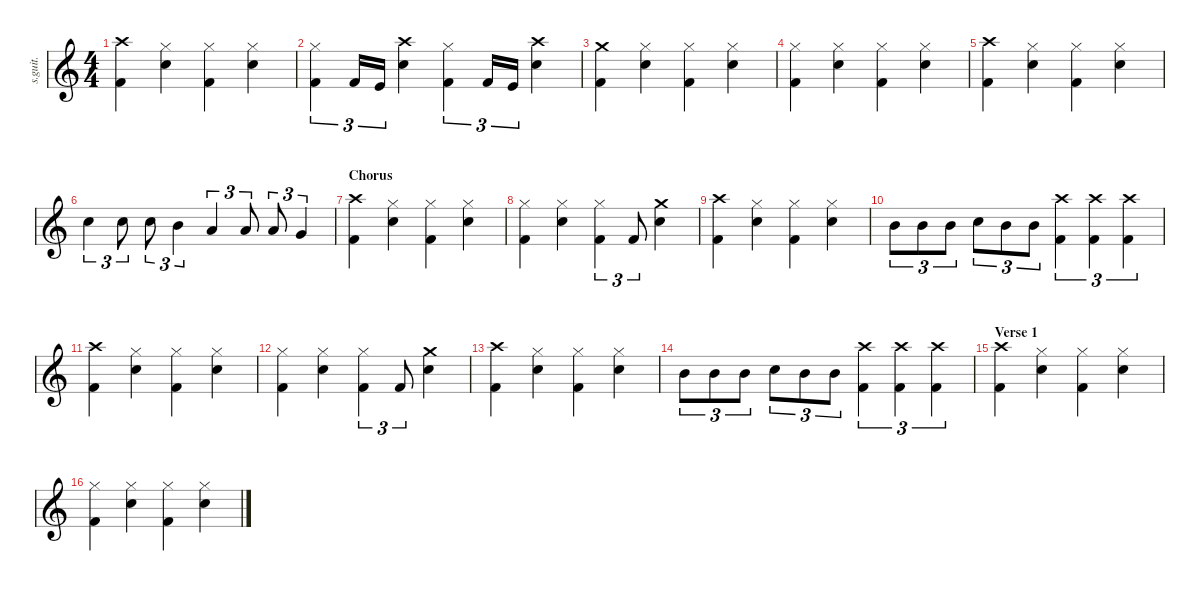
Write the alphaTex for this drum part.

\defaultSystemsLayout 4
\hideDynamics
\bracketExtendMode nobrackets
\track ("Lars Ulrich (Drums)" "s.guit.") {instrument percussion}
\staff {score}
\articulation defaults
\ts (4 4)
\tempo (118 hide)
\clef g2
\ks c
("Crash high (hit)" "Kick (hit) 2").4{lyrics (0 "") lyrics (1 "") lyrics (2 "") lyrics (3 "") lyrics (4 "") dy f} ("Hi-Hat (closed)" "Snare (hit) 2").4{lyrics (0 "") lyrics (1 "") lyrics (2 "") lyrics (3 "") lyrics (4 "")} ("Hi-Hat (closed)" "Kick (hit) 2").4{lyrics (0 "") lyrics (1 "") lyrics (2 "") lyrics (3 "") lyrics (4 "")} ("Hi-Hat (closed)" "Snare (hit) 2").4{lyrics (0 "") lyrics (1 "") lyrics (2 "") lyrics (3 "") lyrics (4 "")} |
("Hi-Hat (closed)" "Kick (hit) 2").4{tu (3 2) lyrics (0 "") lyrics (1 "") lyrics (2 "") lyrics (3 "") lyrics (4 "")} "Kick (hit) 2".16{tu (3 2) lyrics (0 "") lyrics (1 "") lyrics (2 "") lyrics (3 "") lyrics (4 "")} "Kick (hit)".16{tu (3 2) lyrics (0 "") lyrics (1 "") lyrics (2 "") lyrics (3 "") lyrics (4 "")} ("Crash high (hit)" "Snare (hit) 2").4{lyrics (0 "") lyrics (1 "") lyrics (2 "") lyrics (3 "") lyrics (4 "")} ("Hi-Hat (closed)" "Kick (hit) 2").4{tu (3 2) lyrics (0 "") lyrics (1 "") lyrics (2 "") lyrics (3 "") lyrics (4 "")} "Kick (hit) 2".16{tu (3 2) lyrics (0 "") lyrics (1 "") lyrics (2 "") lyrics (3 "") lyrics (4 "")} "Kick (hit)".16{tu (3 2) lyrics (0 "") lyrics (1 "") lyrics (2 "") lyrics (3 "") lyrics (4 "")} ("Crash high (hit)" "Snare (hit) 2").4{lyrics (0 "") lyrics (1 "") lyrics (2 "") lyrics (3 "") lyrics (4 "")} |
("Crash medium (hit)" "Kick (hit) 2").4{lyrics (0 "") lyrics (1 "") lyrics (2 "") lyrics (3 "") lyrics (4 "")} ("Hi-Hat (closed)" "Snare (hit) 2").4{lyrics (0 "") lyrics (1 "") lyrics (2 "") lyrics (3 "") lyrics (4 "")} ("Hi-Hat (closed)" "Kick (hit) 2").4{lyrics (0 "") lyrics (1 "") lyrics (2 "") lyrics (3 "") lyrics (4 "")} ("Hi-Hat (closed)" "Snare (hit) 2").4{lyrics (0 "") lyrics (1 "") lyrics (2 "") lyrics (3 "") lyrics (4 "")} |
("Hi-Hat (closed)" "Kick (hit) 2").4{lyrics (0 "") lyrics (1 "") lyrics (2 "") lyrics (3 "") lyrics (4 "")} ("Hi-Hat (closed)" "Snare (hit) 2").4{lyrics (0 "") lyrics (1 "") lyrics (2 "") lyrics (3 "") lyrics (4 "")} ("Hi-Hat (closed)" "Kick (hit) 2").4{lyrics (0 "") lyrics (1 "") lyrics (2 "") lyrics (3 "") lyrics (4 "")} ("Hi-Hat (closed)" "Snare (hit) 2").4{lyrics (0 "") lyrics (1 "") lyrics (2 "") lyrics (3 "") lyrics (4 "")} |
("Crash high (hit)" "Kick (hit) 2").4{lyrics (0 "") lyrics (1 "") lyrics (2 "") lyrics (3 "") lyrics (4 "")} ("Hi-Hat (closed)" "Snare (hit) 2").4{lyrics (0 "") lyrics (1 "") lyrics (2 "") lyrics (3 "") lyrics (4 "")} ("Hi-Hat (closed)" "Kick (hit) 2").4{lyrics (0 "") lyrics (1 "") lyrics (2 "") lyrics (3 "") lyrics (4 "")} ("Hi-Hat (closed)" "Snare (hit) 2").4{lyrics (0 "") lyrics (1 "") lyrics (2 "") lyrics (3 "") lyrics (4 "")} |
"Snare (hit) 2".4{tu (3 2) lyrics (0 "") lyrics (1 "") lyrics (2 "") lyrics (3 "") lyrics (4 "")} "Snare (hit) 2".8{tu (3 2) lyrics (0 "") lyrics (1 "") lyrics (2 "") lyrics (3 "") lyrics (4 "")} "Snare (hit) 2".8{tu (3 2) lyrics (0 "") lyrics (1 "") lyrics (2 "") lyrics (3 "") lyrics (4 "")} "Mid Tom (hit)".4{tu (3 2) lyrics (0 "") lyrics (1 "") lyrics (2 "") lyrics (3 "") lyrics (4 "")} "Low Tom (hit)".4{tu (3 2) lyrics (0 "") lyrics (1 "") lyrics (2 "") lyrics (3 "") lyrics (4 "")} "Low Tom (hit)".8{tu (3 2) lyrics (0 "") lyrics (1 "") lyrics (2 "") lyrics (3 "") lyrics (4 "")} "Low Tom (hit)".8{tu (3 2) lyrics (0 "") lyrics (1 "") lyrics (2 "") lyrics (3 "") lyrics (4 "")} "Very Low Tom (hit)".4{tu (3 2) lyrics (0 "") lyrics (1 "") lyrics (2 "") lyrics (3 "") lyrics (4 "")} |
\section ("" "Chorus")
("Crash high (hit)" "Kick (hit) 2").4{lyrics (0 "") lyrics (1 "") lyrics (2 "") lyrics (3 "") lyrics (4 "")} ("Hi-Hat (closed)" "Snare (hit) 2").4{lyrics (0 "") lyrics (1 "") lyrics (2 "") lyrics (3 "") lyrics (4 "")} ("Hi-Hat (closed)" "Kick (hit) 2").4{lyrics (0 "") lyrics (1 "") lyrics (2 "") lyrics (3 "") lyrics (4 "")} ("Hi-Hat (closed)" "Snare (hit) 2").4{lyrics (0 "") lyrics (1 "") lyrics (2 "") lyrics (3 "") lyrics (4 "")} |
("Hi-Hat (closed)" "Kick (hit) 2").4{lyrics (0 "") lyrics (1 "") lyrics (2 "") lyrics (3 "") lyrics (4 "")} ("Hi-Hat (closed)" "Snare (hit) 2").4{lyrics (0 "") lyrics (1 "") lyrics (2 "") lyrics (3 "") lyrics (4 "")} ("Hi-Hat (closed)" "Kick (hit) 2").4{tu (3 2) lyrics (0 "") lyrics (1 "") lyrics (2 "") lyrics (3 "") lyrics (4 "")} "Kick (hit) 2".8{tu (3 2) lyrics (0 "") lyrics (1 "") lyrics (2 "") lyrics (3 "") lyrics (4 "")} ("Crash medium (hit)" "Snare (hit) 2").4{lyrics (0 "") lyrics (1 "") lyrics (2 "") lyrics (3 "") lyrics (4 "")} |
("Crash high (hit)" "Kick (hit) 2").4{lyrics (0 "") lyrics (1 "") lyrics (2 "") lyrics (3 "") lyrics (4 "")} ("Hi-Hat (closed)" "Snare (hit) 2").4{lyrics (0 "") lyrics (1 "") lyrics (2 "") lyrics (3 "") lyrics (4 "")} ("Hi-Hat (closed)" "Kick (hit) 2").4{lyrics (0 "") lyrics (1 "") lyrics (2 "") lyrics (3 "") lyrics (4 "")} ("Hi-Hat (closed)" "Snare (hit) 2").4{lyrics (0 "") lyrics (1 "") lyrics (2 "") lyrics (3 "") lyrics (4 "")} |
"Mid Tom (hit)".8{tu (3 2) lyrics (0 "") lyrics (1 "") lyrics (2 "") lyrics (3 "") lyrics (4 "")} "Mid Tom (hit)".8{tu (3 2) lyrics (0 "") lyrics (1 "") lyrics (2 "") lyrics (3 "") lyrics (4 "")} "Mid Tom (hit)".8{tu (3 2) lyrics (0 "") lyrics (1 "") lyrics (2 "") lyrics (3 "") lyrics (4 "")} "Snare (hit) 2".8{tu (3 2) lyrics (0 "") lyrics (1 "") lyrics (2 "") lyrics (3 "") lyrics (4 "")} "Mid Tom (hit)".8{tu (3 2) lyrics (0 "") lyrics (1 "") lyrics (2 "") lyrics (3 "") lyrics (4 "")} "Mid Tom (hit)".8{tu (3 2) lyrics (0 "") lyrics (1 "") lyrics (2 "") lyrics (3 "") lyrics (4 "")} ("Crash high (hit)" "Kick (hit) 2").4{tu (3 2) lyrics (0 "") lyrics (1 "") lyrics (2 "") lyrics (3 "") lyrics (4 "")} ("Crash high (hit)" "Kick (hit) 2").4{tu (3 2) lyrics (0 "") lyrics (1 "") lyrics (2 "") lyrics (3 "") lyrics (4 "")} ("Crash high (hit)" "Kick (hit) 2").4{tu (3 2) lyrics (0 "") lyrics (1 "") lyrics (2 "") lyrics (3 "") lyrics (4 "")} |
("Crash high (hit)" "Kick (hit) 2").4{lyrics (0 "") lyrics (1 "") lyrics (2 "") lyrics (3 "") lyrics (4 "")} ("Hi-Hat (closed)" "Snare (hit) 2").4{lyrics (0 "") lyrics (1 "") lyrics (2 "") lyrics (3 "") lyrics (4 "")} ("Hi-Hat (closed)" "Kick (hit) 2").4{lyrics (0 "") lyrics (1 "") lyrics (2 "") lyrics (3 "") lyrics (4 "")} ("Hi-Hat (closed)" "Snare (hit) 2").4{lyrics (0 "") lyrics (1 "") lyrics (2 "") lyrics (3 "") lyrics (4 "")} |
("Hi-Hat (closed)" "Kick (hit) 2").4{lyrics (0 "") lyrics (1 "") lyrics (2 "") lyrics (3 "") lyrics (4 "")} ("Hi-Hat (closed)" "Snare (hit) 2").4{lyrics (0 "") lyrics (1 "") lyrics (2 "") lyrics (3 "") lyrics (4 "")} ("Hi-Hat (closed)" "Kick (hit) 2").4{tu (3 2) lyrics (0 "") lyrics (1 "") lyrics (2 "") lyrics (3 "") lyrics (4 "")} "Kick (hit) 2".8{tu (3 2) lyrics (0 "") lyrics (1 "") lyrics (2 "") lyrics (3 "") lyrics (4 "")} ("Crash medium (hit)" "Snare (hit) 2").4{lyrics (0 "") lyrics (1 "") lyrics (2 "") lyrics (3 "") lyrics (4 "")} |
("Crash high (hit)" "Kick (hit) 2").4{lyrics (0 "") lyrics (1 "") lyrics (2 "") lyrics (3 "") lyrics (4 "")} ("Hi-Hat (closed)" "Snare (hit) 2").4{lyrics (0 "") lyrics (1 "") lyrics (2 "") lyrics (3 "") lyrics (4 "")} ("Hi-Hat (closed)" "Kick (hit) 2").4{lyrics (0 "") lyrics (1 "") lyrics (2 "") lyrics (3 "") lyrics (4 "")} ("Hi-Hat (closed)" "Snare (hit) 2").4{lyrics (0 "") lyrics (1 "") lyrics (2 "") lyrics (3 "") lyrics (4 "")} |
"Mid Tom (hit)".8{tu (3 2) lyrics (0 "") lyrics (1 "") lyrics (2 "") lyrics (3 "") lyrics (4 "")} "Mid Tom (hit)".8{tu (3 2) lyrics (0 "") lyrics (1 "") lyrics (2 "") lyrics (3 "") lyrics (4 "")} "Mid Tom (hit)".8{tu (3 2) lyrics (0 "") lyrics (1 "") lyrics (2 "") lyrics (3 "") lyrics (4 "")} "Snare (hit) 2".8{tu (3 2) lyrics (0 "") lyrics (1 "") lyrics (2 "") lyrics (3 "") lyrics (4 "")} "Mid Tom (hit)".8{tu (3 2) lyrics (0 "") lyrics (1 "") lyrics (2 "") lyrics (3 "") lyrics (4 "")} "Mid Tom (hit)".8{tu (3 2) lyrics (0 "") lyrics (1 "") lyrics (2 "") lyrics (3 "") lyrics (4 "")} ("Crash high (hit)" "Kick (hit) 2").4{tu (3 2) lyrics (0 "") lyrics (1 "") lyrics (2 "") lyrics (3 "") lyrics (4 "")} ("Crash high (hit)" "Kick (hit) 2").4{tu (3 2) lyrics (0 "") lyrics (1 "") lyrics (2 "") lyrics (3 "") lyrics (4 "")} ("Crash high (hit)" "Kick (hit) 2").4{tu (3 2) lyrics (0 "") lyrics (1 "") lyrics (2 "") lyrics (3 "") lyrics (4 "")} |
\section ("" "Verse 1")
("Crash high (hit)" "Kick (hit) 2").4{lyrics (0 "") lyrics (1 "") lyrics (2 "") lyrics (3 "") lyrics (4 "")} ("Hi-Hat (closed)" "Snare (hit) 2").4{lyrics (0 "") lyrics (1 "") lyrics (2 "") lyrics (3 "") lyrics (4 "")} ("Hi-Hat (closed)" "Kick (hit) 2").4{lyrics (0 "") lyrics (1 "") lyrics (2 "") lyrics (3 "") lyrics (4 "")} ("Hi-Hat (closed)" "Snare (hit) 2").4{lyrics (0 "") lyrics (1 "") lyrics (2 "") lyrics (3 "") lyrics (4 "")} |
("Hi-Hat (closed)" "Kick (hit) 2").4{lyrics (0 "") lyrics (1 "") lyrics (2 "") lyrics (3 "") lyrics (4 "")} ("Hi-Hat (closed)" "Snare (hit) 2").4{lyrics (0 "") lyrics (1 "") lyrics (2 "") lyrics (3 "") lyrics (4 "")} ("Hi-Hat (closed)" "Kick (hit) 2").4{lyrics (0 "") lyrics (1 "") lyrics (2 "") lyrics (3 "") lyrics (4 "")} ("Hi-Hat (closed)" "Snare (hit) 2").4{lyrics (0 "") lyrics (1 "") lyrics (2 "") lyrics (3 "") lyrics (4 "")}
